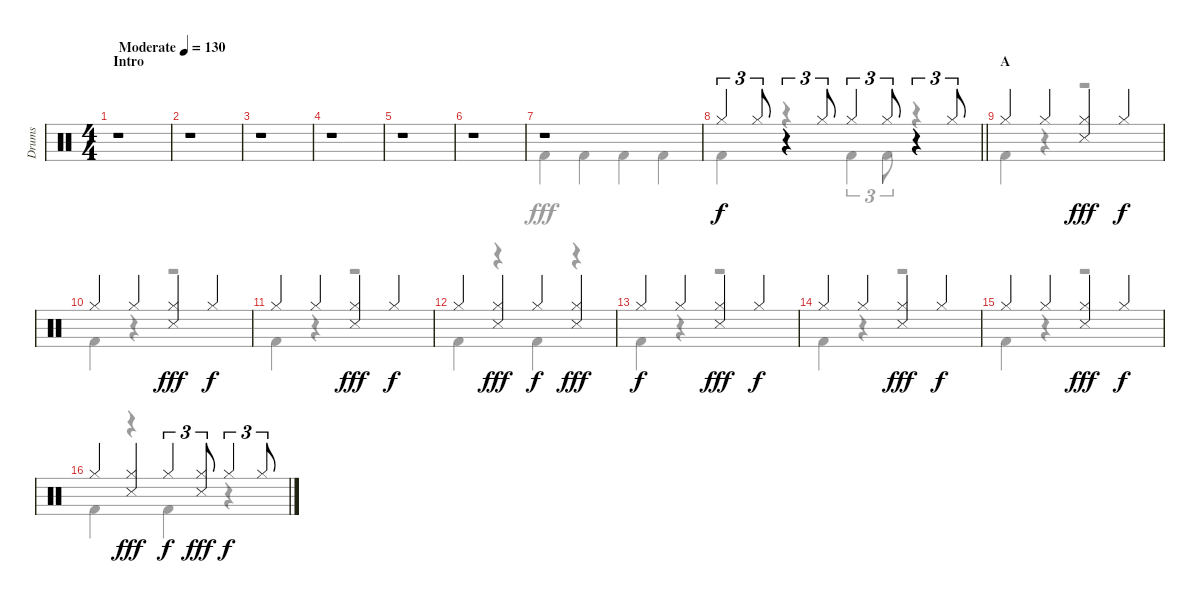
\track ("Drums" "Drums") {instrument percussion}
\staff {score}
\articulation defaults
\voice
\ts (4 4)
\section ("" "Intro")
\tempo (130 "Moderate")
\clef neutral
\ks c
r.1{dy f} |
r.1 |
r.1 |
r.1 |
r.1 |
r.1 |
r.1 |
\barLineRight lightlight "Hi-Hat (closed)".4{tu (3 2)} "Hi-Hat (closed)".8{tu (3 2)}
r.4{tu (3 2)} "Hi-Hat (closed)".8{tu (3 2)} "Hi-Hat (closed)".4{tu (3 2)} "Hi-Hat (closed)".8{tu (3 2)} r.4{tu (3 2)} "Hi-Hat (closed)".8{tu (3 2)} |
\section ("" "A")
"Hi-Hat (closed)".4 "Hi-Hat (closed)".4 ("Hi-Hat (closed)" "Snare (side stick) 3").4{dy fff} "Hi-Hat (closed)".4{dy f} |
"Hi-Hat (closed)".4 "Hi-Hat (closed)".4 ("Hi-Hat (closed)" "Snare (side stick) 3").4{dy fff} "Hi-Hat (closed)".4{dy f} |
"Hi-Hat (closed)".4 "Hi-Hat (closed)".4 ("Hi-Hat (closed)" "Snare (side stick) 3").4{dy fff} "Hi-Hat (closed)".4{dy f} |
"Hi-Hat (closed)".4 ("Hi-Hat (closed)" "Snare (side stick) 3").4{dy fff} "Hi-Hat (closed)".4{dy f} ("Hi-Hat (closed)" "Snare (side stick) 3").4{dy fff} |
"Hi-Hat (closed)".4{dy f} "Hi-Hat (closed)".4 ("Hi-Hat (closed)" "Snare (side stick) 3").4{dy fff} "Hi-Hat (closed)".4{dy f} |
"Hi-Hat (closed)".4 "Hi-Hat (closed)".4 ("Hi-Hat (closed)" "Snare (side stick) 3").4{dy fff} "Hi-Hat (closed)".4{dy f} |
"Hi-Hat (closed)".4 "Hi-Hat (closed)".4 ("Hi-Hat (closed)" "Snare (side stick) 3").4{dy fff} "Hi-Hat (closed)".4{dy f} |
"Hi-Hat (closed)".4 ("Hi-Hat (closed)" "Snare (side stick) 3").4{dy fff} "Hi-Hat (closed)".4{tu (3 2) dy f} ("Hi-Hat (closed)" "Snare (side stick) 3").8{tu (3 2) dy fff} "Hi-Hat (closed)".4{tu (3 2) dy f} "Hi-Hat (closed)".8{tu (3 2)}
\voice
\clef neutral
\ottava regular
\simile none
\ks c
r.1{dy fff} |
r.1 |
r.1 |
r.1 |
r.1 |
r.1 |
"Kick (hit) 2".4 "Kick (hit) 2".4 "Kick (hit) 2".4 "Kick (hit) 2".4 |
\barLineRight lightlight "Kick (hit) 2".4
r.4 "Kick (hit) 2".4{tu (3 2)} "Kick (hit) 2".8{tu (3 2)} r.4 |
"Kick (hit) 2".4 r.4 r.2 |
"Kick (hit) 2".4 r.4 r.2 |
"Kick (hit) 2".4 r.4 r.2 |
"Kick (hit) 2".4 r.4 "Kick (hit) 2".4 r.4 |
"Kick (hit) 2".4 r.4 r.2 |
"Kick (hit) 2".4 r.4 r.2 |
"Kick (hit) 2".4 r.4 r.2 |
"Kick (hit) 2".4 r.4 "Kick (hit) 2".4 r.4
